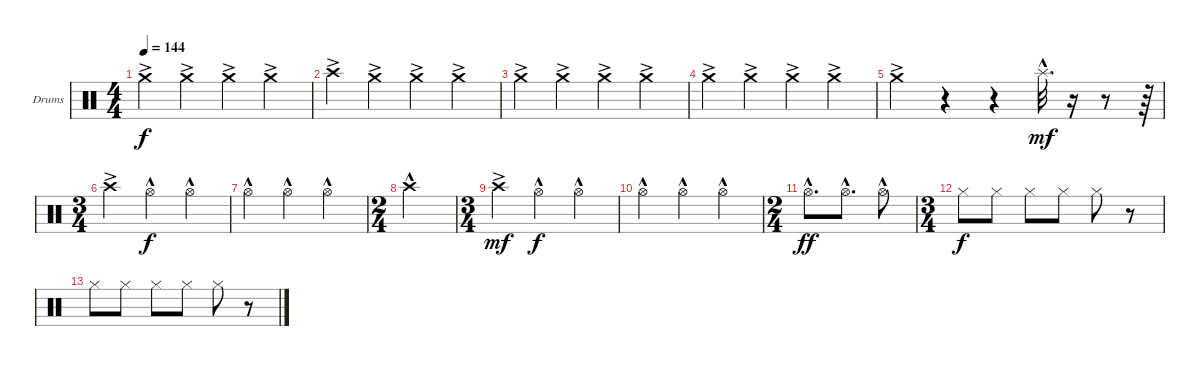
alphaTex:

\defaultSystemsLayout 4
\bracketExtendMode groupsimilarinstruments
\firstSystemTrackNameOrientation horizontal
\otherSystemsTrackNameOrientation horizontal
\track ("Cymbals" "Drums") {instrument percussion}
\staff {score}
\articulation defaults
\ts (4 4)
\tempo 144
\clef neutral
\ks c "Crash medium (hit)"{ac}.4{dy f} "Crash medium (hit)"{ac}.4 "Crash medium (hit)"{ac}.4 "Crash medium (hit)"{ac}.4
|
"Crash high (hit)"{ac}.4 "Crash medium (hit)"{ac}.4 "Crash medium (hit)"{ac}.4 "Crash medium (hit)"{ac}.4 |
"Crash medium (hit)"{ac}.4 "Crash medium (hit)"{ac}.4 "Crash medium (hit)"{ac}.4 "Crash medium (hit)"{ac}.4 |
"Crash medium (hit)"{ac}.4 "Crash medium (hit)"{ac}.4 "Crash medium (hit)"{ac}.4 "Crash medium (hit)"{ac}.4 |
"Crash medium (hit)"{ac}.4 r.4 r.4 "Splash (hit)"{hac}.32{d dy mf} r.16 r.8 r.64 |
\ts (3 4)
"Crash high (hit)"{ac}.4 "Hi-Hat (open)"{hac}.4{dy f} "Hi-Hat (open)"{hac}.4 |
"Hi-Hat (open)"{hac}.4 "Hi-Hat (open)"{hac}.4 "Hi-Hat (open)"{hac}.4 |
\ts (2 4)
"Crash high (hit)"{hac}.2 |
\ts (3 4)
"Crash high (hit)"{ac}.4{dy mf} "Hi-Hat (open)"{hac}.4{dy f} "Hi-Hat (open)"{hac}.4 |
"Hi-Hat (open)"{hac}.4 "Hi-Hat (open)"{hac}.4 "Hi-Hat (open)"{hac}.4 |
\ts (2 4)
"Hi-Hat (open)"{hac}.8{d dy ff} "Hi-Hat (open)"{hac}.8{d} "Hi-Hat (open)"{hac}.8 |
\ts (3 4)
"Hi-Hat (closed)".8{dy f} "Hi-Hat (closed)".8 "Hi-Hat (closed)".8 "Hi-Hat (closed)".8 "Hi-Hat (closed)".8 r.8 |
"Hi-Hat (closed)".8 "Hi-Hat (closed)".8 "Hi-Hat (closed)".8 "Hi-Hat (closed)".8 "Hi-Hat (closed)".8 r.8
